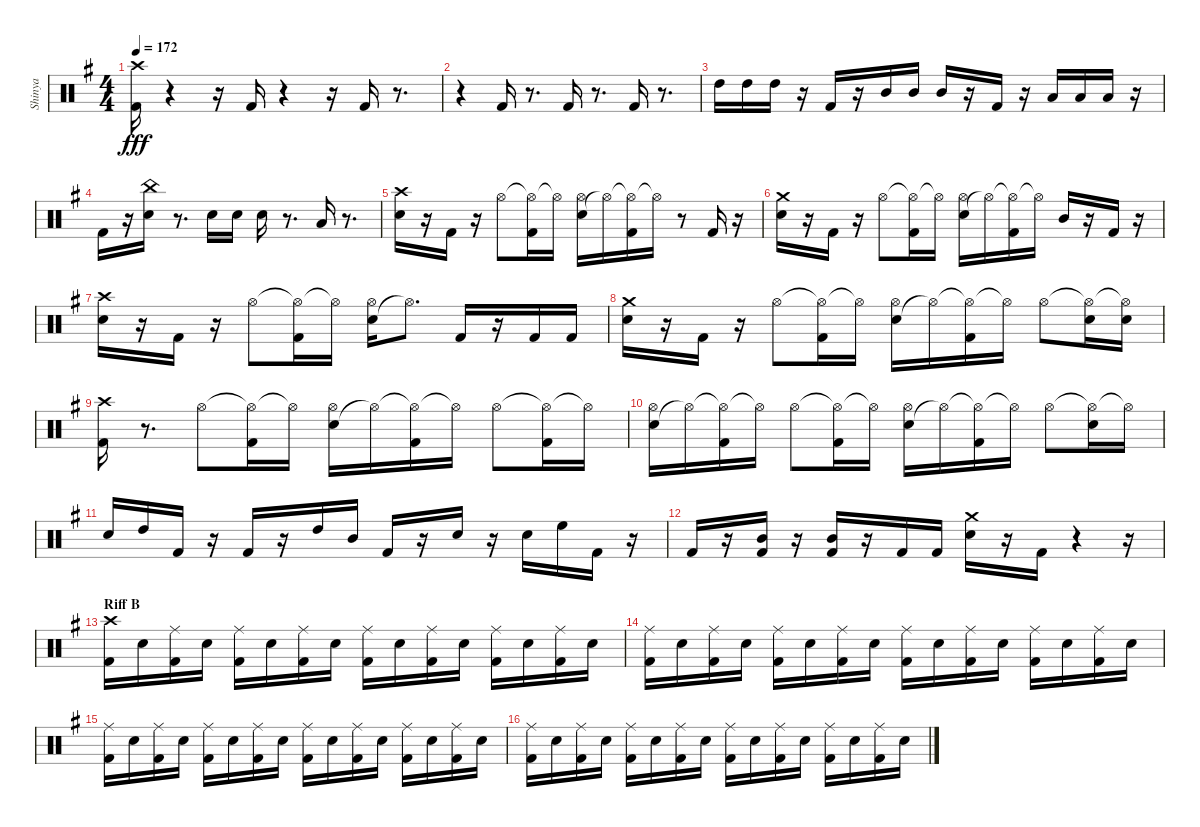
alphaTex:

\track ("Shinya" "Shinya") {instrument percussion}
\staff {score}
\articulation defaults
\ts (4 4)
\tempo 172
\clef neutral
\ks eminor
("Kick (hit) 2" "Crash high (hit)").16{dy fff} r.4 r.16 "Kick (hit) 2".16 r.4 r.16 "Kick (hit) 2".16 r.8{d} |
r.4 "Kick (hit) 2".16 r.8{d} "Kick (hit) 2".16 r.8{d} "Kick (hit) 2".16 r.8{d} |
"High Tom (hit)".16 "High Tom (hit)".16 "High Tom (hit)".16 r.16 "Kick (hit) 2".16 r.16 "Mid Tom (hit)".16 "Mid Tom (hit)".16 "Mid Tom (hit)".16 r.16 "Kick (hit) 2".16 r.16 "Low Tom (hit)".16 "Low Tom (hit)".16 "Low Tom (hit)".16 r.16 |
"Kick (hit) 2".16 r.16 ("Snare (hit) 2" "China (hit)").16 r.8{d} "Snare (hit) 2".16 "Snare (hit) 2".16 "Snare (hit) 2".16 r.8{d} "Low Tom (hit)".16 r.8{d} |
("Snare (hit) 2" "Crash high (hit)").16 r.16 "Kick (hit) 2".16 r.16 "Hi-Hat (open)".8 ("Hi-Hat (open)"{t} "Kick (hit) 2").16 "Hi-Hat (open)"{t}.16 ("Snare (hit) 2" "Hi-Hat (open)").16 "Hi-Hat (open)"{t}.16 ("Hi-Hat (open)"{t} "Kick (hit) 2").16 "Hi-Hat (open)"{t}.16 r.8 "Kick (hit) 2".16 r.16 |
("Snare (hit) 2" "Crash medium (hit)").16 r.16 "Kick (hit) 2".16 r.16 "Hi-Hat (open)".8 ("Hi-Hat (open)"{t} "Kick (hit) 2").16 "Hi-Hat (open)"{t}.16 ("Snare (hit) 2" "Hi-Hat (open)").16 "Hi-Hat (open)"{t}.16 ("Hi-Hat (open)"{t} "Kick (hit) 2").16 "Hi-Hat (open)"{t}.16 "Mid Tom (hit)".16 r.16 "Kick (hit) 2".16 r.16 |
("Snare (hit) 2" "Crash high (hit)").16 r.16 "Kick (hit) 2".16 r.16 "Hi-Hat (open)".8 ("Hi-Hat (open)"{t} "Kick (hit) 2").16 "Hi-Hat (open)"{t}.16 ("Snare (hit) 2" "Hi-Hat (open)").16 "Hi-Hat (open)"{t}.8{d} "Kick (hit) 2".16 r.16 "Kick (hit) 2".16 "Kick (hit) 2".16 |
("Snare (hit) 2" "Crash medium (hit)").16 r.16 "Kick (hit) 2".16 r.16 "Hi-Hat (open)".8 ("Hi-Hat (open)"{t} "Kick (hit) 2").16 "Hi-Hat (open)"{t}.16 ("Snare (hit) 2" "Hi-Hat (open)").16 "Hi-Hat (open)"{t}.16 ("Hi-Hat (open)"{t} "Kick (hit) 2").16 "Hi-Hat (open)"{t}.16 "Hi-Hat (open)".8 ("Hi-Hat (open)"{t} "Snare (hit) 2").16 ("Hi-Hat (open)"{t} "Snare (hit) 2").16 |
("Kick (hit) 2" "Crash high (hit)").16 r.8{d} "Hi-Hat (open)".8 ("Hi-Hat (open)"{t} "Kick (hit) 2").16 "Hi-Hat (open)"{t}.16 ("Snare (hit) 2" "Hi-Hat (open)").16 "Hi-Hat (open)"{t}.16 ("Hi-Hat (open)"{t} "Kick (hit) 2").16 "Hi-Hat (open)"{t}.16 "Hi-Hat (open)".8 ("Hi-Hat (open)"{t} "Kick (hit) 2").16 "Hi-Hat (open)"{t}.16 |
("Snare (hit) 2" "Hi-Hat (open)").16 "Hi-Hat (open)"{t}.16 ("Hi-Hat (open)"{t} "Kick (hit) 2").16 "Hi-Hat (open)"{t}.16 "Hi-Hat (open)".8 ("Hi-Hat (open)"{t} "Kick (hit) 2").16 "Hi-Hat (open)"{t}.16 ("Snare (hit) 2" "Hi-Hat (open)").16 "Hi-Hat (open)"{t}.16 ("Hi-Hat (open)"{t} "Kick (hit) 2").16 "Hi-Hat (open)"{t}.16 "Hi-Hat (open)".8 ("Hi-Hat (open)"{t} "Snare (hit) 2").16 "Hi-Hat (open)"{t}.16 |
"Snare (hit) 2".16 "High Tom (hit)".16 "Kick (hit) 2".16 r.16 "Kick (hit) 2".16 r.16 "High Tom (hit)".16 "Mid Tom (hit)".16 "Kick (hit) 2".16 r.16 "Snare (hit) 2".16 r.16 "Snare (hit) 2".16 "High Floor Tom (hit)".16 "Kick (hit) 2".16 r.16 |
"Kick (hit) 2".16 r.16 ("Kick (hit) 2" "Mid Tom (hit)").16 r.16 ("Kick (hit) 2" "Mid Tom (hit)").16 r.16 "Kick (hit) 2".16 "Kick (hit) 2".16 ("Snare (hit) 2" "Crash medium (hit)").16 r.16 "Kick (hit) 2".16 r.4 r.16 |
\section ("" "Riff B")
("Kick (hit) 2" "Crash high (hit)").16 "Snare (hit) 2".16 ("Kick (hit) 2" "Ride (middle)").16 "Snare (hit) 2".16 ("Kick (hit) 2" "Ride (middle)").16 "Snare (hit) 2".16 ("Kick (hit) 2" "Ride (middle)").16 "Snare (hit) 2".16 ("Kick (hit) 2" "Ride (middle)").16 "Snare (hit) 2".16 ("Kick (hit) 2" "Ride (middle)").16 "Snare (hit) 2".16 ("Kick (hit) 2" "Ride (middle)").16 "Snare (hit) 2".16 ("Kick (hit) 2" "Ride (middle)").16 "Snare (hit) 2".16 |
("Kick (hit) 2" "Ride (middle)").16 "Snare (hit) 2".16 ("Kick (hit) 2" "Ride (middle)").16 "Snare (hit) 2".16 ("Kick (hit) 2" "Ride (middle)").16 "Snare (hit) 2".16 ("Kick (hit) 2" "Ride (middle)").16 "Snare (hit) 2".16 ("Kick (hit) 2" "Ride (middle)").16 "Snare (hit) 2".16 ("Kick (hit) 2" "Ride (middle)").16 "Snare (hit) 2".16 ("Kick (hit) 2" "Ride (middle)").16 "Snare (hit) 2".16 ("Kick (hit) 2" "Ride (middle)").16 "Snare (hit) 2".16 |
("Kick (hit) 2" "Ride (middle)").16 "Snare (hit) 2".16 ("Kick (hit) 2" "Ride (middle)").16 "Snare (hit) 2".16 ("Kick (hit) 2" "Ride (middle)").16 "Snare (hit) 2".16 ("Kick (hit) 2" "Ride (middle)").16 "Snare (hit) 2".16 ("Kick (hit) 2" "Ride (middle)").16 "Snare (hit) 2".16 ("Kick (hit) 2" "Ride (middle)").16 "Snare (hit) 2".16 ("Kick (hit) 2" "Ride (middle)").16 "Snare (hit) 2".16 ("Kick (hit) 2" "Ride (middle)").16 "Snare (hit) 2".16 |
("Kick (hit) 2" "Ride (middle)").16 "Snare (hit) 2".16 ("Kick (hit) 2" "Ride (middle)").16 "Snare (hit) 2".16 ("Kick (hit) 2" "Ride (middle)").16 "Snare (hit) 2".16 ("Kick (hit) 2" "Ride (middle)").16 "Snare (hit) 2".16 ("Kick (hit) 2" "Ride (middle)").16 "Snare (hit) 2".16 ("Kick (hit) 2" "Ride (middle)").16 "Snare (hit) 2".16 ("Kick (hit) 2" "Ride (middle)").16 "Snare (hit) 2".16 ("Kick (hit) 2" "Ride (middle)").16 "Snare (hit) 2".16
